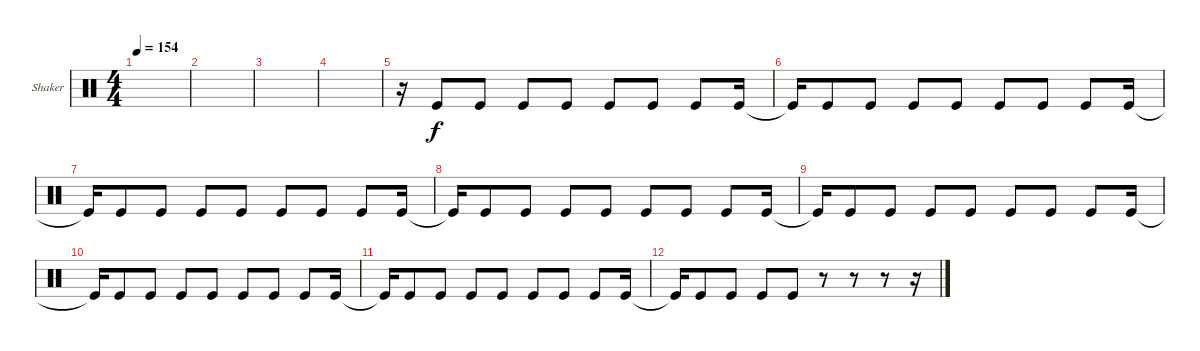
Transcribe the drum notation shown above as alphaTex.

\defaultSystemsLayout 4
\bracketExtendMode groupsimilarinstruments
\firstSystemTrackNameOrientation horizontal
\otherSystemsTrackNameOrientation horizontal
\track ("Shaker" "Shaker") {instrument percussion}
\staff {score}
\articulation defaults
\ts (4 4)
\tempo 154
\clef neutral
\ks c
|
|
|
|
r.16 "Kick (hit)".8 "Kick (hit)".8 "Kick (hit)".8 "Kick (hit)".8 "Kick (hit)".8 "Kick (hit)".8 "Kick (hit)".8 "Kick (hit)".16 |
"Kick (hit)"{t}.16 "Kick (hit)".8 "Kick (hit)".8 "Kick (hit)".8 "Kick (hit)".8 "Kick (hit)".8 "Kick (hit)".8 "Kick (hit)".8 "Kick (hit)".16 |
"Kick (hit)"{t}.16 "Kick (hit)".8 "Kick (hit)".8 "Kick (hit)".8 "Kick (hit)".8 "Kick (hit)".8 "Kick (hit)".8 "Kick (hit)".8 "Kick (hit)".16 |
"Kick (hit)"{t}.16 "Kick (hit)".8 "Kick (hit)".8 "Kick (hit)".8 "Kick (hit)".8 "Kick (hit)".8 "Kick (hit)".8 "Kick (hit)".8 "Kick (hit)".16 |
"Kick (hit)"{t}.16 "Kick (hit)".8 "Kick (hit)".8 "Kick (hit)".8 "Kick (hit)".8 "Kick (hit)".8 "Kick (hit)".8 "Kick (hit)".8 "Kick (hit)".16 |
"Kick (hit)"{t}.16 "Kick (hit)".8 "Kick (hit)".8 "Kick (hit)".8 "Kick (hit)".8 "Kick (hit)".8 "Kick (hit)".8 "Kick (hit)".8 "Kick (hit)".16 |
"Kick (hit)"{t}.16 "Kick (hit)".8 "Kick (hit)".8 "Kick (hit)".8 "Kick (hit)".8 "Kick (hit)".8 "Kick (hit)".8 "Kick (hit)".8 "Kick (hit)".16 |
"Kick (hit)"{t}.16 "Kick (hit)".8 "Kick (hit)".8 "Kick (hit)".8 "Kick (hit)".8 r.8 r.8 r.8 r.16
